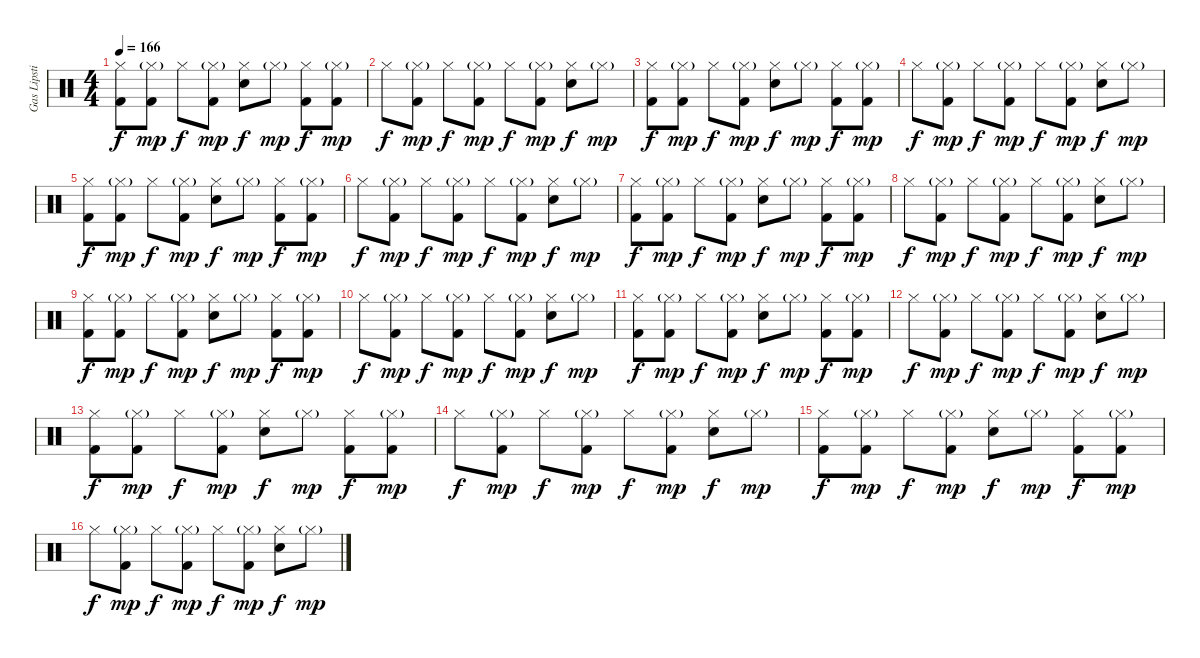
\track ("Gas Lipstick (Drums)" "Gas Lipsti") {instrument percussion}
\staff {score}
\articulation defaults
\ts (4 4)
\tempo 166
\clef neutral
\ks c
("Hi-Hat (closed)" "Kick (hit) 2").8{dy f} ("Hi-Hat (closed)"{g} "Kick (hit) 2").8{dy mp} "Hi-Hat (closed)".8{dy f} ("Hi-Hat (closed)"{g} "Kick (hit) 2").8{dy mp} ("Hi-Hat (closed)" "Snare (hit) 2").8{dy f} "Hi-Hat (closed)"{g}.8{dy mp} ("Hi-Hat (closed)" "Kick (hit) 2").8{dy f} ("Hi-Hat (closed)"{g} "Kick (hit) 2").8{dy mp} |
"Hi-Hat (closed)".8{dy f} ("Hi-Hat (closed)"{g} "Kick (hit) 2").8{dy mp} "Hi-Hat (closed)".8{dy f} ("Hi-Hat (closed)"{g} "Kick (hit) 2").8{dy mp} "Hi-Hat (closed)".8{dy f} ("Hi-Hat (closed)"{g} "Kick (hit) 2").8{dy mp} ("Hi-Hat (closed)" "Snare (hit) 2").8{dy f} "Hi-Hat (closed)"{g}.8{dy mp} |
("Hi-Hat (closed)" "Kick (hit) 2").8{dy f} ("Hi-Hat (closed)"{g} "Kick (hit) 2").8{dy mp} "Hi-Hat (closed)".8{dy f} ("Hi-Hat (closed)"{g} "Kick (hit) 2").8{dy mp} ("Hi-Hat (closed)" "Snare (hit) 2").8{dy f} "Hi-Hat (closed)"{g}.8{dy mp} ("Hi-Hat (closed)" "Kick (hit) 2").8{dy f} ("Hi-Hat (closed)"{g} "Kick (hit) 2").8{dy mp} |
"Hi-Hat (closed)".8{dy f} ("Hi-Hat (closed)"{g} "Kick (hit) 2").8{dy mp} "Hi-Hat (closed)".8{dy f} ("Hi-Hat (closed)"{g} "Kick (hit) 2").8{dy mp} "Hi-Hat (closed)".8{dy f} ("Hi-Hat (closed)"{g} "Kick (hit) 2").8{dy mp} ("Hi-Hat (closed)" "Snare (hit) 2").8{dy f} "Hi-Hat (closed)"{g}.8{dy mp} |
("Hi-Hat (closed)" "Kick (hit) 2").8{dy f} ("Hi-Hat (closed)"{g} "Kick (hit) 2").8{dy mp} "Hi-Hat (closed)".8{dy f} ("Hi-Hat (closed)"{g} "Kick (hit) 2").8{dy mp} ("Hi-Hat (closed)" "Snare (hit) 2").8{dy f} "Hi-Hat (closed)"{g}.8{dy mp} ("Hi-Hat (closed)" "Kick (hit) 2").8{dy f} ("Hi-Hat (closed)"{g} "Kick (hit) 2").8{dy mp} |
"Hi-Hat (closed)".8{dy f} ("Hi-Hat (closed)"{g} "Kick (hit) 2").8{dy mp} "Hi-Hat (closed)".8{dy f} ("Hi-Hat (closed)"{g} "Kick (hit) 2").8{dy mp} "Hi-Hat (closed)".8{dy f} ("Hi-Hat (closed)"{g} "Kick (hit) 2").8{dy mp} ("Hi-Hat (closed)" "Snare (hit) 2").8{dy f} "Hi-Hat (closed)"{g}.8{dy mp} |
("Hi-Hat (closed)" "Kick (hit) 2").8{dy f} ("Hi-Hat (closed)"{g} "Kick (hit) 2").8{dy mp} "Hi-Hat (closed)".8{dy f} ("Hi-Hat (closed)"{g} "Kick (hit) 2").8{dy mp} ("Hi-Hat (closed)" "Snare (hit) 2").8{dy f} "Hi-Hat (closed)"{g}.8{dy mp} ("Hi-Hat (closed)" "Kick (hit) 2").8{dy f} ("Hi-Hat (closed)"{g} "Kick (hit) 2").8{dy mp} |
"Hi-Hat (closed)".8{dy f} ("Hi-Hat (closed)"{g} "Kick (hit) 2").8{dy mp} "Hi-Hat (closed)".8{dy f} ("Hi-Hat (closed)"{g} "Kick (hit) 2").8{dy mp} "Hi-Hat (closed)".8{dy f} ("Hi-Hat (closed)"{g} "Kick (hit) 2").8{dy mp} ("Hi-Hat (closed)" "Snare (hit) 2").8{dy f} "Hi-Hat (closed)"{g}.8{dy mp} |
("Hi-Hat (closed)" "Kick (hit) 2").8{dy f} ("Hi-Hat (closed)"{g} "Kick (hit) 2").8{dy mp} "Hi-Hat (closed)".8{dy f} ("Hi-Hat (closed)"{g} "Kick (hit) 2").8{dy mp} ("Hi-Hat (closed)" "Snare (hit) 2").8{dy f} "Hi-Hat (closed)"{g}.8{dy mp} ("Hi-Hat (closed)" "Kick (hit) 2").8{dy f} ("Hi-Hat (closed)"{g} "Kick (hit) 2").8{dy mp} |
"Hi-Hat (closed)".8{dy f} ("Hi-Hat (closed)"{g} "Kick (hit) 2").8{dy mp} "Hi-Hat (closed)".8{dy f} ("Hi-Hat (closed)"{g} "Kick (hit) 2").8{dy mp} "Hi-Hat (closed)".8{dy f} ("Hi-Hat (closed)"{g} "Kick (hit) 2").8{dy mp} ("Hi-Hat (closed)" "Snare (hit) 2").8{dy f} "Hi-Hat (closed)"{g}.8{dy mp} |
("Hi-Hat (closed)" "Kick (hit) 2").8{dy f} ("Hi-Hat (closed)"{g} "Kick (hit) 2").8{dy mp} "Hi-Hat (closed)".8{dy f} ("Hi-Hat (closed)"{g} "Kick (hit) 2").8{dy mp} ("Hi-Hat (closed)" "Snare (hit) 2").8{dy f} "Hi-Hat (closed)"{g}.8{dy mp} ("Hi-Hat (closed)" "Kick (hit) 2").8{dy f} ("Hi-Hat (closed)"{g} "Kick (hit) 2").8{dy mp} |
"Hi-Hat (closed)".8{dy f} ("Hi-Hat (closed)"{g} "Kick (hit) 2").8{dy mp} "Hi-Hat (closed)".8{dy f} ("Hi-Hat (closed)"{g} "Kick (hit) 2").8{dy mp} "Hi-Hat (closed)".8{dy f} ("Hi-Hat (closed)"{g} "Kick (hit) 2").8{dy mp} ("Hi-Hat (closed)" "Snare (hit) 2").8{dy f} "Hi-Hat (closed)"{g}.8{dy mp} |
("Hi-Hat (closed)" "Kick (hit) 2").8{dy f} ("Hi-Hat (closed)"{g} "Kick (hit) 2").8{dy mp} "Hi-Hat (closed)".8{dy f} ("Hi-Hat (closed)"{g} "Kick (hit) 2").8{dy mp} ("Hi-Hat (closed)" "Snare (hit) 2").8{dy f} "Hi-Hat (closed)"{g}.8{dy mp} ("Hi-Hat (closed)" "Kick (hit) 2").8{dy f} ("Hi-Hat (closed)"{g} "Kick (hit) 2").8{dy mp} |
"Hi-Hat (closed)".8{dy f} ("Hi-Hat (closed)"{g} "Kick (hit) 2").8{dy mp} "Hi-Hat (closed)".8{dy f} ("Hi-Hat (closed)"{g} "Kick (hit) 2").8{dy mp} "Hi-Hat (closed)".8{dy f} ("Hi-Hat (closed)"{g} "Kick (hit) 2").8{dy mp} ("Hi-Hat (closed)" "Snare (hit) 2").8{dy f} "Hi-Hat (closed)"{g}.8{dy mp} |
("Hi-Hat (closed)" "Kick (hit) 2").8{dy f} ("Hi-Hat (closed)"{g} "Kick (hit) 2").8{dy mp} "Hi-Hat (closed)".8{dy f} ("Hi-Hat (closed)"{g} "Kick (hit) 2").8{dy mp} ("Hi-Hat (closed)" "Snare (hit) 2").8{dy f} "Hi-Hat (closed)"{g}.8{dy mp} ("Hi-Hat (closed)" "Kick (hit) 2").8{dy f} ("Hi-Hat (closed)"{g} "Kick (hit) 2").8{dy mp} |
"Hi-Hat (closed)".8{dy f} ("Hi-Hat (closed)"{g} "Kick (hit) 2").8{dy mp} "Hi-Hat (closed)".8{dy f} ("Hi-Hat (closed)"{g} "Kick (hit) 2").8{dy mp} "Hi-Hat (closed)".8{dy f} ("Hi-Hat (closed)"{g} "Kick (hit) 2").8{dy mp} ("Hi-Hat (closed)" "Snare (hit) 2").8{dy f} "Hi-Hat (closed)"{g}.8{dy mp}
